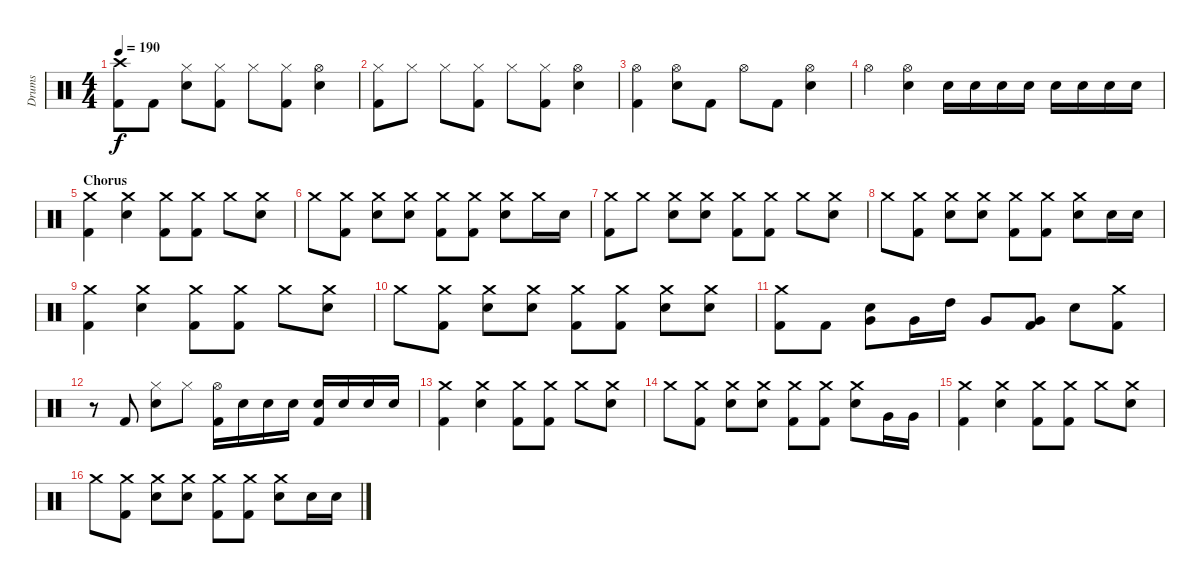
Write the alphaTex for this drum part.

\track ("Drums" "Drums") {instrument percussion}
\staff {score}
\articulation defaults
\ts (4 4)
\tempo 190
\clef neutral
\ks c
("Crash high (hit)" "Kick (hit) 2").8{dy f} "Kick (hit) 2".8 ("Hi-Hat (closed)" "Snare (hit) 2").8 ("Hi-Hat (closed)" "Kick (hit) 2").8 "Hi-Hat (closed)".8 ("Hi-Hat (closed)" "Kick (hit) 2").8 ("Hi-Hat (open)" "Snare (hit) 2").4 |
("Hi-Hat (closed)" "Kick (hit) 2").8 "Hi-Hat (closed)".8 "Hi-Hat (closed)".8 ("Hi-Hat (closed)" "Kick (hit) 2").8 "Hi-Hat (closed)".8 ("Hi-Hat (closed)" "Kick (hit) 2").8 ("Hi-Hat (open)" "Snare (hit) 2").4 |
("Hi-Hat (open)" "Kick (hit) 2").4 ("Hi-Hat (open)" "Snare (hit) 2").8 "Kick (hit) 2".8 "Hi-Hat (open)".8 "Kick (hit) 2".8 ("Hi-Hat (open)" "Snare (hit) 2").4 |
"Hi-Hat (open)".4 ("Hi-Hat (open)" "Snare (hit) 2").4 "Snare (hit) 2".16 "Snare (hit) 2".16 "Snare (hit) 2".16 "Snare (hit) 2".16 "Snare (hit) 2".16 "Snare (hit) 2".16 "Snare (hit) 2".16 "Snare (hit) 2".16 |
\section ("" "Chorus")
("Crash medium (hit)" "Kick (hit) 2").4 ("Crash medium (hit)" "Snare (hit) 2").4 ("Crash medium (hit)" "Kick (hit) 2").8 ("Crash medium (hit)" "Kick (hit) 2").8 "Crash medium (hit)".8 ("Crash medium (hit)" "Snare (hit) 2").8 |
"Crash medium (hit)".8 ("Crash medium (hit)" "Kick (hit) 2").8 ("Crash medium (hit)" "Snare (hit) 2").8 ("Crash medium (hit)" "Snare (hit) 2").8 ("Crash medium (hit)" "Kick (hit) 2").8 ("Crash medium (hit)" "Kick (hit) 2").8 ("Crash medium (hit)" "Snare (hit) 2").8 "Crash medium (hit)".16 "Snare (hit) 2".16 |
("Crash medium (hit)" "Kick (hit) 2").8 "Crash medium (hit)".8 ("Crash medium (hit)" "Snare (hit) 2").8 ("Crash medium (hit)" "Snare (hit) 2").8 ("Crash medium (hit)" "Kick (hit) 2").8 ("Crash medium (hit)" "Kick (hit) 2").8 "Crash medium (hit)".8 ("Crash medium (hit)" "Snare (hit) 2").8 |
"Crash medium (hit)".8 ("Crash medium (hit)" "Kick (hit) 2").8 ("Crash medium (hit)" "Snare (hit) 2").8 ("Crash medium (hit)" "Snare (hit) 2").8 ("Crash medium (hit)" "Kick (hit) 2").8 ("Crash medium (hit)" "Kick (hit) 2").8 ("Crash medium (hit)" "Snare (hit) 2").8 "Snare (hit) 2".16 "Snare (hit) 2".16 |
("Crash medium (hit)" "Kick (hit) 2").4 ("Crash medium (hit)" "Snare (hit) 2").4 ("Crash medium (hit)" "Kick (hit) 2").8 ("Crash medium (hit)" "Kick (hit) 2").8 "Crash medium (hit)".8 ("Crash medium (hit)" "Snare (hit) 2").8 |
"Crash medium (hit)".8 ("Crash medium (hit)" "Kick (hit) 2").8 ("Crash medium (hit)" "Snare (hit) 2").8 ("Crash medium (hit)" "Snare (hit) 2").8 ("Crash medium (hit)" "Kick (hit) 2").8 ("Crash medium (hit)" "Kick (hit) 2").8 ("Crash medium (hit)" "Snare (hit) 2").8 ("Crash medium (hit)" "Snare (hit) 2").8 |
("Crash medium (hit)" "Kick (hit) 2").8 "Kick (hit) 2".8 ("Snare (hit) 2" "Very Low Tom (hit)").8 "Very Low Tom (hit)".16 "High Tom (hit)".16 "Very Low Tom (hit)".8 ("Very Low Tom (hit)" "Kick (hit) 2").8 "Snare (hit) 2".8 ("Crash medium (hit)" "Kick (hit) 2").8 |
r.8 "Kick (hit) 2".8 ("Hi-Hat (closed)" "Snare (hit) 2").8 "Hi-Hat (closed)".8 ("Hi-Hat (open)" "Kick (hit) 2").16 "Snare (hit) 2".16 "Snare (hit) 2".16 "Snare (hit) 2".16 ("Snare (hit) 2" "Kick (hit) 2").16 "Snare (hit) 2".16 "Snare (hit) 2".16 "Snare (hit) 2".16 |
("Crash medium (hit)" "Kick (hit) 2").4 ("Crash medium (hit)" "Snare (hit) 2").4 ("Crash medium (hit)" "Kick (hit) 2").8 ("Crash medium (hit)" "Kick (hit) 2").8 "Crash medium (hit)".8 ("Crash medium (hit)" "Snare (hit) 2").8 |
"Crash medium (hit)".8 ("Crash medium (hit)" "Kick (hit) 2").8 ("Crash medium (hit)" "Snare (hit) 2").8 ("Crash medium (hit)" "Snare (hit) 2").8 ("Crash medium (hit)" "Kick (hit) 2").8 ("Crash medium (hit)" "Kick (hit) 2").8 ("Crash medium (hit)" "Snare (hit) 2").8 "Very Low Tom (hit)".16 "Very Low Tom (hit)".16 |
("Crash medium (hit)" "Kick (hit) 2").4 ("Crash medium (hit)" "Snare (hit) 2").4 ("Crash medium (hit)" "Kick (hit) 2").8 ("Crash medium (hit)" "Kick (hit) 2").8 "Crash medium (hit)".8 ("Crash medium (hit)" "Snare (hit) 2").8 |
"Crash medium (hit)".8 ("Crash medium (hit)" "Kick (hit) 2").8 ("Crash medium (hit)" "Snare (hit) 2").8 ("Crash medium (hit)" "Snare (hit) 2").8 ("Crash medium (hit)" "Kick (hit) 2").8 ("Crash medium (hit)" "Kick (hit) 2").8 ("Crash medium (hit)" "Snare (hit) 2").8 "Snare (hit) 2".16 "Snare (hit) 2".16
